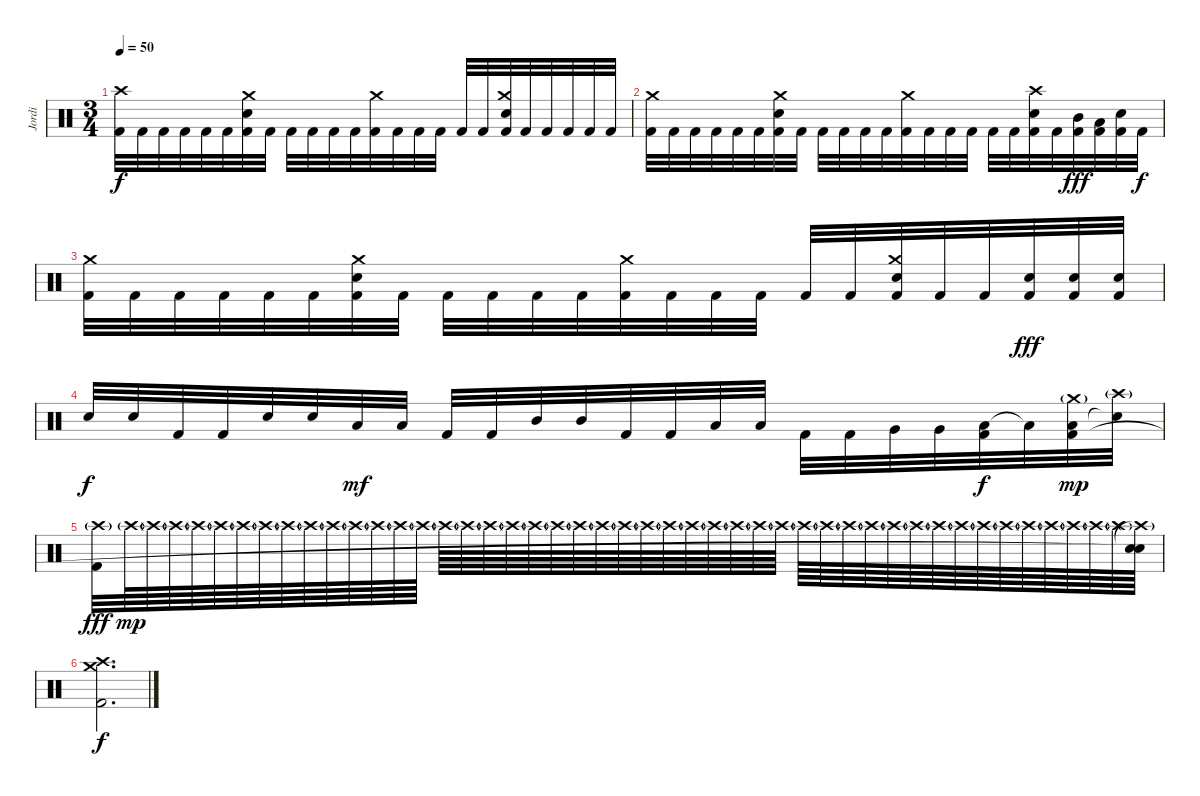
\track ("Jordi" "Jordi") {instrument percussion}
\staff {score}
\articulation defaults
\ts (3 4)
\tempo 50
\clef neutral
\ks c
("Crash high (hit)" "Kick (hit) 2").32{dy f} "Kick (hit) 2".32 "Kick (hit) 2".32 "Kick (hit) 2".32 "Kick (hit) 2".32 "Kick (hit) 2".32 ("Crash medium (hit)" "Snare (hit) 2" "Kick (hit) 2").32 "Kick (hit) 2".32 "Kick (hit) 2".32 "Kick (hit) 2".32 "Kick (hit) 2".32 "Kick (hit) 2".32 ("Crash medium (hit)" "Kick (hit) 2").32 "Kick (hit) 2".32 "Kick (hit) 2".32 "Kick (hit) 2".32 "Kick (hit) 2".32 "Kick (hit) 2".32 ("Crash medium (hit)" "Snare (hit) 2" "Kick (hit) 2").32 "Kick (hit) 2".32 "Kick (hit) 2".32 "Kick (hit) 2".32 "Kick (hit) 2".32 "Kick (hit) 2".32 |
("Crash medium (hit)" "Kick (hit) 2").32 "Kick (hit) 2".32 "Kick (hit) 2".32 "Kick (hit) 2".32 "Kick (hit) 2".32 "Kick (hit) 2".32 ("Crash medium (hit)" "Snare (hit) 2" "Kick (hit) 2").32 "Kick (hit) 2".32 "Kick (hit) 2".32 "Kick (hit) 2".32 "Kick (hit) 2".32 "Kick (hit) 2".32 ("Crash medium (hit)" "Kick (hit) 2").32 "Kick (hit) 2".32 "Kick (hit) 2".32 "Kick (hit) 2".32 "Kick (hit) 2".32 "Kick (hit) 2".32 ("Crash high (hit)" "Snare (hit) 2" "Kick (hit) 2").32 "Kick (hit) 2".32 ("Mid Tom (hit)" "Kick (hit) 2").32{dy fff} ("Low Tom (hit)" "Kick (hit) 2").32 ("Snare (hit) 2" "Kick (hit) 2").32 "Kick (hit) 2".32{dy f} |
("Crash medium (hit)" "Kick (hit) 2").32 "Kick (hit) 2".32 "Kick (hit) 2".32 "Kick (hit) 2".32 "Kick (hit) 2".32 "Kick (hit) 2".32 ("Crash medium (hit)" "Snare (hit) 2" "Kick (hit) 2").32 "Kick (hit) 2".32 "Kick (hit) 2".32 "Kick (hit) 2".32 "Kick (hit) 2".32 "Kick (hit) 2".32 ("Crash medium (hit)" "Kick (hit) 2").32 "Kick (hit) 2".32 "Kick (hit) 2".32 "Kick (hit) 2".32 "Kick (hit) 2".32 "Kick (hit) 2".32 ("Crash medium (hit)" "Snare (hit) 2" "Kick (hit) 2").32 "Kick (hit) 2".32 "Kick (hit) 2".32 ("Snare (hit) 2" "Kick (hit) 2").32{dy fff} ("Snare (hit) 2" "Kick (hit) 2").32 ("Snare (hit) 2" "Kick (hit) 2").32 |
"Snare (hit) 2".32{dy f} "Snare (hit) 2".32 "Kick (hit) 2".32 "Kick (hit) 2".32 "Snare (hit) 2".32 "Snare (hit) 2".32 "Low Floor Tom (hit)".32{dy mf} "Low Floor Tom (hit)".32 "Kick (hit) 2".32 "Kick (hit) 2".32 "Mid Tom (hit)".32 "Mid Tom (hit)".32 "Kick (hit) 2".32 "Kick (hit) 2".32 "Low Tom (hit)".32 "Low Tom (hit)".32 "Kick (hit) 2".32 "Kick (hit) 2".32 "Very Low Tom (hit)".32 "Very Low Tom (hit)".32 ("Low Floor Tom (hit)" "Kick (hit) 2").32{dy f} "Low Floor Tom (hit)"{t}.32 ("Crash medium (hit)"{g} "Low Floor Tom (hit)" "Kick (hit) 2").32{dy mp} ("Crash high (hit)"{g} "Snare (hit)"{t}).32 |
("Crash high (hit)"{g} "Kick (hit) 2").32{dy fff volume 8} "Crash high (hit)"{g}.64{dy mp volume 14} "Crash high (hit)"{g}.64 "Crash high (hit)"{g}.64 "Crash high (hit)"{g}.64 "Crash high (hit)"{g}.64 "Crash high (hit)"{g}.64 "Crash high (hit)"{g}.64 "Crash high (hit)"{g}.64 "Crash high (hit)"{g}.64 "Crash high (hit)"{g}.64 "Crash high (hit)"{g}.64 "Crash high (hit)"{g}.64 "Crash high (hit)"{g}.64 "Crash high (hit)"{g}.64 "Crash high (hit)"{g}.64 "Crash high (hit)"{g}.64 "Crash high (hit)"{g}.64 "Crash high (hit)"{g}.64 "Crash high (hit)"{g}.64 "Crash high (hit)"{g}.64 "Crash high (hit)"{g}.64 "Crash high (hit)"{g}.64 "Crash high (hit)"{g}.64 "Crash high (hit)"{g}.64 "Crash high (hit)"{g}.64 "Crash high (hit)"{g}.64 "Crash high (hit)"{g}.64 "Crash high (hit)"{g}.64 "Crash high (hit)"{g}.64 "Crash high (hit)"{g}.64 "Crash high (hit)"{g}.64 "Crash high (hit)"{g}.64 "Crash high (hit)"{g}.64 "Crash high (hit)"{g}.64 "Crash high (hit)"{g}.64 "Crash high (hit)"{g}.64 "Crash high (hit)"{g}.64 "Crash high (hit)"{g}.64 "Crash high (hit)"{g}.64 "Crash high (hit)"{g}.64 "Crash high (hit)"{g}.64 "Crash high (hit)"{g}.64 "Crash high (hit)"{g}.64 "Crash high (hit)"{g}.64 "Crash high (hit)"{g}.64 ("Snare (hit)"{t} "Crash high (hit)"{g} "Snare (hit)"{t}).64 |
("Crash medium (hit)" "Crash high (hit)" "Kick (hit) 2").2{d dy f}
